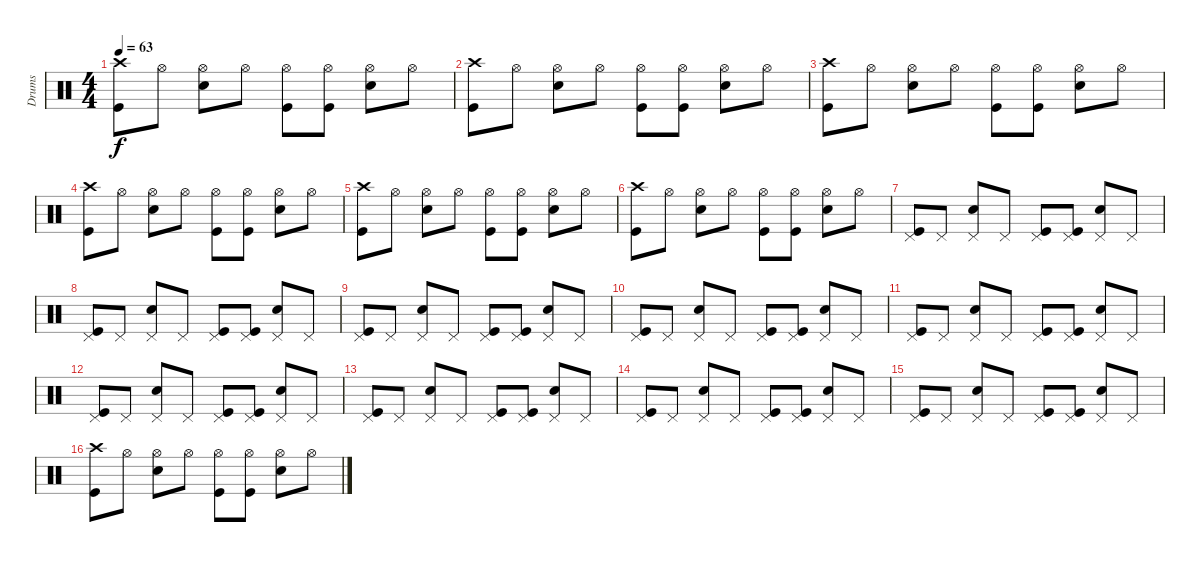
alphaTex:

\track ("Drums" "Drums") {instrument percussion}
\staff {score}
\articulation defaults
\ts (4 4)
\tempo 63
\clef neutral
\ks c
("Crash high (hit)" "Kick (hit)").8{dy f} "Hi-Hat (open)".8 ("Hi-Hat (open)" "Electric Snare (hit)").8 "Hi-Hat (open)".8 ("Hi-Hat (open)" "Kick (hit)").8 ("Hi-Hat (open)" "Kick (hit)").8 ("Hi-Hat (open)" "Electric Snare (hit)").8 "Hi-Hat (open)".8 |
("Crash high (hit)" "Kick (hit)").8 "Hi-Hat (open)".8 ("Hi-Hat (open)" "Electric Snare (hit)").8 "Hi-Hat (open)".8 ("Hi-Hat (open)" "Kick (hit)").8 ("Hi-Hat (open)" "Kick (hit)").8 ("Hi-Hat (open)" "Electric Snare (hit)").8 "Hi-Hat (open)".8 |
("Crash high (hit)" "Kick (hit)").8 "Hi-Hat (open)".8 ("Hi-Hat (open)" "Electric Snare (hit)").8 "Hi-Hat (open)".8 ("Hi-Hat (open)" "Kick (hit)").8 ("Hi-Hat (open)" "Kick (hit)").8 ("Hi-Hat (open)" "Electric Snare (hit)").8 "Hi-Hat (open)".8 |
("Crash high (hit)" "Kick (hit)").8 "Hi-Hat (open)".8 ("Hi-Hat (open)" "Electric Snare (hit)").8 "Hi-Hat (open)".8 ("Hi-Hat (open)" "Kick (hit)").8 ("Hi-Hat (open)" "Kick (hit)").8 ("Hi-Hat (open)" "Electric Snare (hit)").8 "Hi-Hat (open)".8 |
("Crash high (hit)" "Kick (hit)").8 "Hi-Hat (open)".8 ("Hi-Hat (open)" "Electric Snare (hit)").8 "Hi-Hat (open)".8 ("Hi-Hat (open)" "Kick (hit)").8 ("Hi-Hat (open)" "Kick (hit)").8 ("Hi-Hat (open)" "Electric Snare (hit)").8 "Hi-Hat (open)".8 |
("Crash high (hit)" "Kick (hit)").8 "Hi-Hat (open)".8 ("Hi-Hat (open)" "Electric Snare (hit)").8 "Hi-Hat (open)".8 ("Hi-Hat (open)" "Kick (hit)").8 ("Hi-Hat (open)" "Kick (hit)").8 ("Hi-Hat (open)" "Electric Snare (hit)").8 "Hi-Hat (open)".8 |
("Pedal Hi-Hat (hit)" "Kick (hit)").8 "Pedal Hi-Hat (hit)".8 ("Pedal Hi-Hat (hit)" "Electric Snare (hit)").8 "Pedal Hi-Hat (hit)".8 ("Pedal Hi-Hat (hit)" "Kick (hit)").8 ("Pedal Hi-Hat (hit)" "Kick (hit)").8 ("Pedal Hi-Hat (hit)" "Electric Snare (hit)").8 "Pedal Hi-Hat (hit)".8 |
("Pedal Hi-Hat (hit)" "Kick (hit)").8 "Pedal Hi-Hat (hit)".8 ("Pedal Hi-Hat (hit)" "Electric Snare (hit)").8 "Pedal Hi-Hat (hit)".8 ("Pedal Hi-Hat (hit)" "Kick (hit)").8 ("Pedal Hi-Hat (hit)" "Kick (hit)").8 ("Pedal Hi-Hat (hit)" "Electric Snare (hit)").8 "Pedal Hi-Hat (hit)".8 |
("Pedal Hi-Hat (hit)" "Kick (hit)").8 "Pedal Hi-Hat (hit)".8 ("Pedal Hi-Hat (hit)" "Electric Snare (hit)").8 "Pedal Hi-Hat (hit)".8 ("Pedal Hi-Hat (hit)" "Kick (hit)").8 ("Pedal Hi-Hat (hit)" "Kick (hit)").8 ("Pedal Hi-Hat (hit)" "Electric Snare (hit)").8 "Pedal Hi-Hat (hit)".8 |
("Pedal Hi-Hat (hit)" "Kick (hit)").8 "Pedal Hi-Hat (hit)".8 ("Pedal Hi-Hat (hit)" "Electric Snare (hit)").8 "Pedal Hi-Hat (hit)".8 ("Pedal Hi-Hat (hit)" "Kick (hit)").8 ("Pedal Hi-Hat (hit)" "Kick (hit)").8 ("Pedal Hi-Hat (hit)" "Electric Snare (hit)").8 "Pedal Hi-Hat (hit)".8 |
("Pedal Hi-Hat (hit)" "Kick (hit)").8 "Pedal Hi-Hat (hit)".8 ("Pedal Hi-Hat (hit)" "Electric Snare (hit)").8 "Pedal Hi-Hat (hit)".8 ("Pedal Hi-Hat (hit)" "Kick (hit)").8 ("Pedal Hi-Hat (hit)" "Kick (hit)").8 ("Pedal Hi-Hat (hit)" "Electric Snare (hit)").8 "Pedal Hi-Hat (hit)".8 |
("Pedal Hi-Hat (hit)" "Kick (hit)").8 "Pedal Hi-Hat (hit)".8 ("Pedal Hi-Hat (hit)" "Electric Snare (hit)").8 "Pedal Hi-Hat (hit)".8 ("Pedal Hi-Hat (hit)" "Kick (hit)").8 ("Pedal Hi-Hat (hit)" "Kick (hit)").8 ("Pedal Hi-Hat (hit)" "Electric Snare (hit)").8 "Pedal Hi-Hat (hit)".8 |
("Pedal Hi-Hat (hit)" "Kick (hit)").8 "Pedal Hi-Hat (hit)".8 ("Pedal Hi-Hat (hit)" "Electric Snare (hit)").8 "Pedal Hi-Hat (hit)".8 ("Pedal Hi-Hat (hit)" "Kick (hit)").8 ("Pedal Hi-Hat (hit)" "Kick (hit)").8 ("Pedal Hi-Hat (hit)" "Electric Snare (hit)").8 "Pedal Hi-Hat (hit)".8 |
("Pedal Hi-Hat (hit)" "Kick (hit)").8 "Pedal Hi-Hat (hit)".8 ("Pedal Hi-Hat (hit)" "Electric Snare (hit)").8 "Pedal Hi-Hat (hit)".8 ("Pedal Hi-Hat (hit)" "Kick (hit)").8 ("Pedal Hi-Hat (hit)" "Kick (hit)").8 ("Pedal Hi-Hat (hit)" "Electric Snare (hit)").8 "Pedal Hi-Hat (hit)".8 |
("Pedal Hi-Hat (hit)" "Kick (hit)").8 "Pedal Hi-Hat (hit)".8 ("Pedal Hi-Hat (hit)" "Electric Snare (hit)").8 "Pedal Hi-Hat (hit)".8 ("Pedal Hi-Hat (hit)" "Kick (hit)").8 ("Pedal Hi-Hat (hit)" "Kick (hit)").8 ("Pedal Hi-Hat (hit)" "Electric Snare (hit)").8 "Pedal Hi-Hat (hit)".8 |
("Crash high (hit)" "Kick (hit)").8 "Hi-Hat (open)".8 ("Hi-Hat (open)" "Electric Snare (hit)").8 "Hi-Hat (open)".8 ("Hi-Hat (open)" "Kick (hit)").8 ("Hi-Hat (open)" "Kick (hit)").8 ("Hi-Hat (open)" "Electric Snare (hit)").8 "Hi-Hat (open)".8
